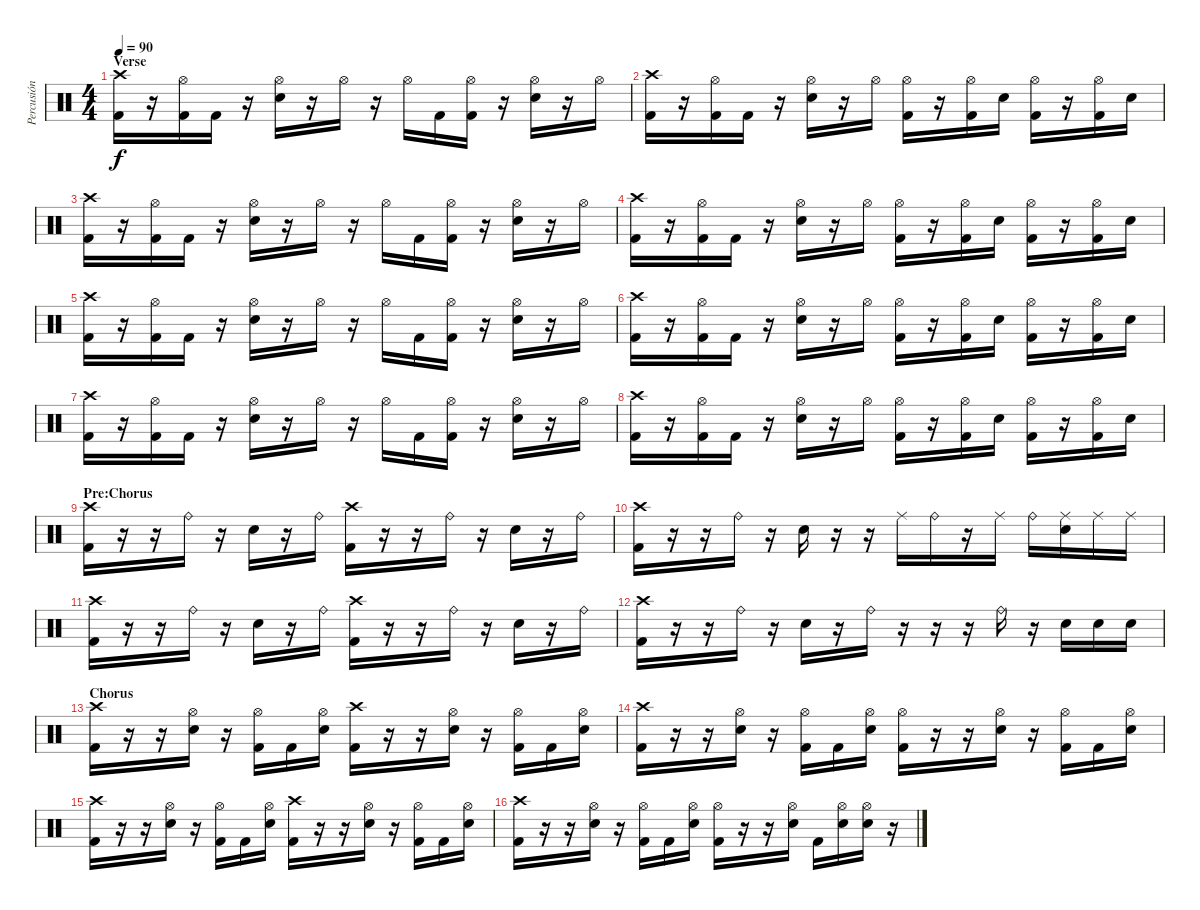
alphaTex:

\track ("Percusión" "Percusión") {instrument percussion}
\staff {score}
\articulation defaults
\ts (4 4)
\section ("" "Verse")
\tempo 90
\clef neutral
\ks c
("Crash high (hit)" "Kick (hit) 2").16{dy f} r.16 ("Hi-Hat (open)" "Kick (hit) 2").16 "Kick (hit) 2".16 r.16 ("Hi-Hat (open)" "Electric Snare (hit)").16 r.16 "Hi-Hat (open)".16 r.16 "Hi-Hat (open)".16 "Kick (hit) 2".16 ("Hi-Hat (open)" "Kick (hit) 2").16 r.16 ("Hi-Hat (open)" "Electric Snare (hit)").16 r.16 "Hi-Hat (open)".16 |
("Crash high (hit)" "Kick (hit) 2").16 r.16 ("Hi-Hat (open)" "Kick (hit) 2").16 "Kick (hit) 2".16 r.16 ("Hi-Hat (open)" "Electric Snare (hit)").16 r.16 "Hi-Hat (open)".16 ("Hi-Hat (open)" "Kick (hit) 2").16 r.16 ("Hi-Hat (open)" "Kick (hit) 2").16 "Electric Snare (hit)".16 ("Hi-Hat (open)" "Kick (hit) 2").16 r.16 ("Hi-Hat (open)" "Kick (hit) 2").16 "Electric Snare (hit)".16 |
("Crash high (hit)" "Kick (hit) 2").16 r.16 ("Hi-Hat (open)" "Kick (hit) 2").16 "Kick (hit) 2".16 r.16 ("Hi-Hat (open)" "Electric Snare (hit)").16 r.16 "Hi-Hat (open)".16 r.16 "Hi-Hat (open)".16 "Kick (hit) 2".16 ("Hi-Hat (open)" "Kick (hit) 2").16 r.16 ("Hi-Hat (open)" "Electric Snare (hit)").16 r.16 "Hi-Hat (open)".16 |
("Crash high (hit)" "Kick (hit) 2").16 r.16 ("Hi-Hat (open)" "Kick (hit) 2").16 "Kick (hit) 2".16 r.16 ("Hi-Hat (open)" "Electric Snare (hit)").16 r.16 "Hi-Hat (open)".16 ("Hi-Hat (open)" "Kick (hit) 2").16 r.16 ("Hi-Hat (open)" "Kick (hit) 2").16 "Electric Snare (hit)".16 ("Hi-Hat (open)" "Kick (hit) 2").16 r.16 ("Hi-Hat (open)" "Kick (hit) 2").16 "Electric Snare (hit)".16 |
("Crash high (hit)" "Kick (hit) 2").16 r.16 ("Hi-Hat (open)" "Kick (hit) 2").16 "Kick (hit) 2".16 r.16 ("Hi-Hat (open)" "Electric Snare (hit)").16 r.16 "Hi-Hat (open)".16 r.16 "Hi-Hat (open)".16 "Kick (hit) 2".16 ("Hi-Hat (open)" "Kick (hit) 2").16 r.16 ("Hi-Hat (open)" "Electric Snare (hit)").16 r.16 "Hi-Hat (open)".16 |
("Crash high (hit)" "Kick (hit) 2").16 r.16 ("Hi-Hat (open)" "Kick (hit) 2").16 "Kick (hit) 2".16 r.16 ("Hi-Hat (open)" "Electric Snare (hit)").16 r.16 "Hi-Hat (open)".16 ("Hi-Hat (open)" "Kick (hit) 2").16 r.16 ("Hi-Hat (open)" "Kick (hit) 2").16 "Electric Snare (hit)".16 ("Hi-Hat (open)" "Kick (hit) 2").16 r.16 ("Hi-Hat (open)" "Kick (hit) 2").16 "Electric Snare (hit)".16 |
("Crash high (hit)" "Kick (hit) 2").16 r.16 ("Hi-Hat (open)" "Kick (hit) 2").16 "Kick (hit) 2".16 r.16 ("Hi-Hat (open)" "Electric Snare (hit)").16 r.16 "Hi-Hat (open)".16 r.16 "Hi-Hat (open)".16 "Kick (hit) 2".16 ("Hi-Hat (open)" "Kick (hit) 2").16 r.16 ("Hi-Hat (open)" "Electric Snare (hit)").16 r.16 "Hi-Hat (open)".16 |
("Crash high (hit)" "Kick (hit) 2").16 r.16 ("Hi-Hat (open)" "Kick (hit) 2").16 "Kick (hit) 2".16 r.16 ("Hi-Hat (open)" "Electric Snare (hit)").16 r.16 "Hi-Hat (open)".16 ("Hi-Hat (open)" "Kick (hit) 2").16 r.16 ("Hi-Hat (open)" "Kick (hit) 2").16 "Electric Snare (hit)".16 ("Hi-Hat (open)" "Kick (hit) 2").16 r.16 ("Hi-Hat (open)" "Kick (hit) 2").16 "Electric Snare (hit)".16 |
\section ("" "Pre:Chorus")
("Crash high (hit)" "Kick (hit) 2").16 r.16 r.16 "Ride (bell)".16 r.16 "Electric Snare (hit)".16 r.16 "Ride (bell)".16 ("Crash high (hit)" "Kick (hit) 2").16 r.16 r.16 "Ride (bell)".16 r.16 "Electric Snare (hit)".16 r.16 "Ride (bell)".16 |
("Crash high (hit)" "Kick (hit) 2").16 r.16 r.16 "Ride (bell)".16 r.16 "Electric Snare (hit)".16 r.16 r.16 "Ride (middle)".16 "Ride (bell)".16 r.16 "Ride (middle)".16 "Ride (bell)".16 ("Ride (middle)" "Electric Snare (hit)").16 "Ride (middle)".16 "Ride (middle)".16 |
("Crash high (hit)" "Kick (hit) 2").16 r.16 r.16 "Ride (bell)".16 r.16 "Electric Snare (hit)".16 r.16 "Ride (bell)".16 ("Crash high (hit)" "Kick (hit) 2").16 r.16 r.16 "Ride (bell)".16 r.16 "Electric Snare (hit)".16 r.16 "Ride (bell)".16 |
("Crash high (hit)" "Kick (hit) 2").16 r.16 r.16 "Ride (bell)".16 r.16 "Electric Snare (hit)".16 r.16 "Ride (bell)".16 r.16 r.16 r.16 "Ride (bell)".16 r.16 "Electric Snare (hit)".16 "Electric Snare (hit)".16 "Electric Snare (hit)".16 |
\section ("" "Chorus")
("Crash high (hit)" "Kick (hit) 2").16 r.16 r.16 ("Hi-Hat (open)" "Electric Snare (hit)").16 r.16 ("Hi-Hat (open)" "Kick (hit) 2").16 "Kick (hit) 2".16 ("Hi-Hat (open)" "Electric Snare (hit)").16 ("Crash high (hit)" "Kick (hit) 2").16 r.16 r.16 ("Hi-Hat (open)" "Electric Snare (hit)").16 r.16 ("Hi-Hat (open)" "Kick (hit) 2").16 "Kick (hit) 2".16 ("Hi-Hat (open)" "Electric Snare (hit)").16 |
("Crash high (hit)" "Kick (hit) 2").16 r.16 r.16 ("Hi-Hat (open)" "Electric Snare (hit)").16 r.16 ("Hi-Hat (open)" "Kick (hit) 2").16 "Kick (hit) 2".16 ("Hi-Hat (open)" "Electric Snare (hit)").16 ("Hi-Hat (open)" "Kick (hit) 2").16 r.16 r.16 ("Hi-Hat (open)" "Electric Snare (hit)").16 r.16 ("Hi-Hat (open)" "Kick (hit) 2").16 "Kick (hit) 2".16 ("Hi-Hat (open)" "Electric Snare (hit)").16 |
("Crash high (hit)" "Kick (hit) 2").16 r.16 r.16 ("Hi-Hat (open)" "Electric Snare (hit)").16 r.16 ("Hi-Hat (open)" "Kick (hit) 2").16 "Kick (hit) 2".16 ("Hi-Hat (open)" "Electric Snare (hit)").16 ("Crash high (hit)" "Kick (hit) 2").16 r.16 r.16 ("Hi-Hat (open)" "Electric Snare (hit)").16 r.16 ("Hi-Hat (open)" "Kick (hit) 2").16 "Kick (hit) 2".16 ("Hi-Hat (open)" "Electric Snare (hit)").16 |
("Crash high (hit)" "Kick (hit) 2").16 r.16 r.16 ("Hi-Hat (open)" "Electric Snare (hit)").16 r.16 ("Hi-Hat (open)" "Kick (hit) 2").16 "Kick (hit) 2".16 ("Hi-Hat (open)" "Electric Snare (hit)").16 ("Hi-Hat (open)" "Kick (hit) 2").16 r.16 r.16 ("Hi-Hat (open)" "Electric Snare (hit)").16 "Kick (hit) 2".16 ("Hi-Hat (open)" "Electric Snare (hit)").16 ("Hi-Hat (open)" "Electric Snare (hit)").16 r.16
